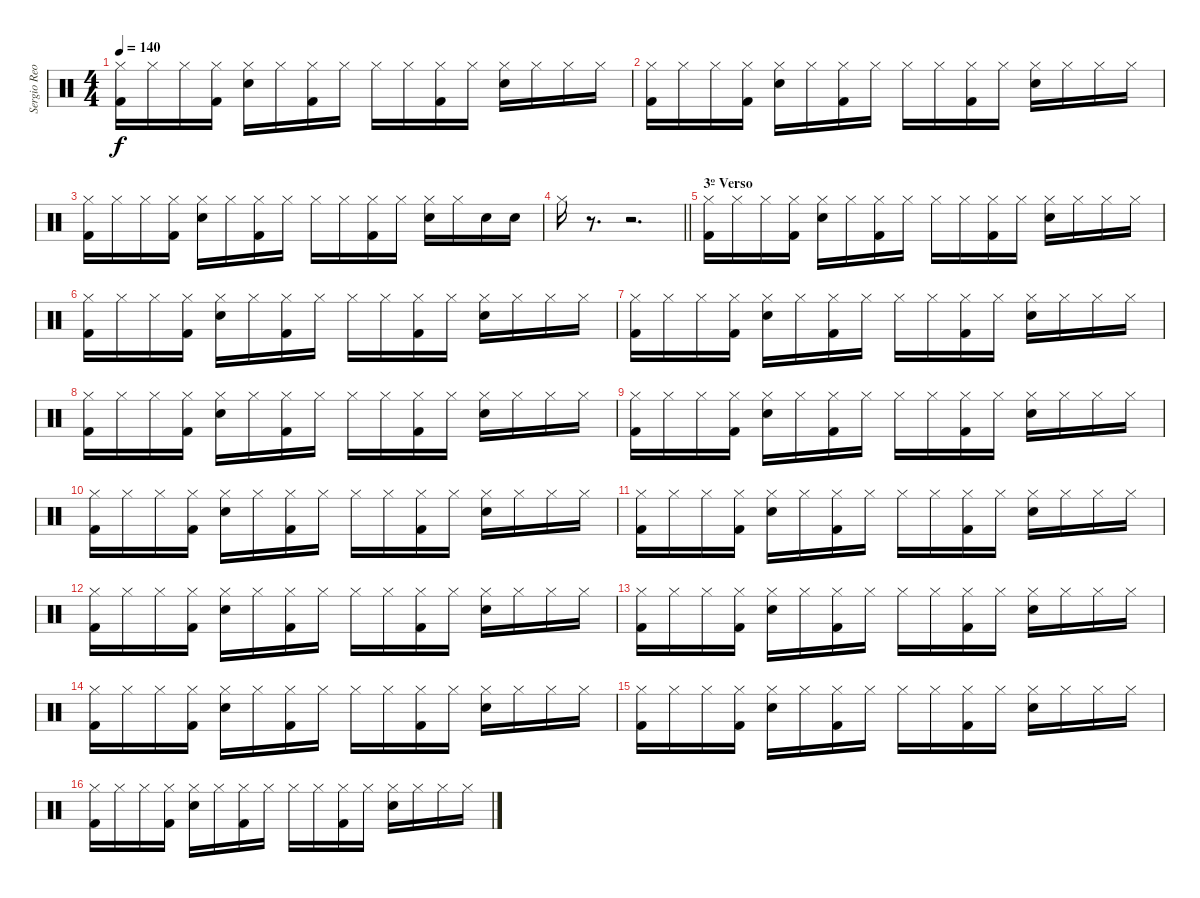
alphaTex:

\track ("Sergio Reoli" "Sergio Reo") {instrument percussion}
\staff {score}
\articulation defaults
\ts (4 4)
\tempo 140
\clef neutral
\ks c
("Hi-Hat (closed)" "Kick (hit) 2").16{dy f} "Hi-Hat (closed)".16 "Hi-Hat (closed)".16 ("Hi-Hat (closed)" "Kick (hit) 2").16 ("Hi-Hat (closed)" "Electric Snare (hit)").16 "Hi-Hat (closed)".16 ("Hi-Hat (closed)" "Kick (hit) 2").16 "Hi-Hat (closed)".16 "Hi-Hat (closed)".16 "Hi-Hat (closed)".16 ("Hi-Hat (closed)" "Kick (hit) 2").16 "Hi-Hat (closed)".16 ("Hi-Hat (closed)" "Electric Snare (hit)").16 "Hi-Hat (closed)".16 "Hi-Hat (closed)".16 "Hi-Hat (closed)".16 |
("Hi-Hat (closed)" "Kick (hit) 2").16 "Hi-Hat (closed)".16 "Hi-Hat (closed)".16 ("Hi-Hat (closed)" "Kick (hit) 2").16 ("Hi-Hat (closed)" "Electric Snare (hit)").16 "Hi-Hat (closed)".16 ("Hi-Hat (closed)" "Kick (hit) 2").16 "Hi-Hat (closed)".16 "Hi-Hat (closed)".16 "Hi-Hat (closed)".16 ("Hi-Hat (closed)" "Kick (hit) 2").16 "Hi-Hat (closed)".16 ("Hi-Hat (closed)" "Electric Snare (hit)").16 "Hi-Hat (closed)".16 "Hi-Hat (closed)".16 "Hi-Hat (closed)".16 |
("Hi-Hat (closed)" "Kick (hit) 2").16 "Hi-Hat (closed)".16 "Hi-Hat (closed)".16 ("Hi-Hat (closed)" "Kick (hit) 2").16 ("Hi-Hat (closed)" "Electric Snare (hit)").16 "Hi-Hat (closed)".16 ("Hi-Hat (closed)" "Kick (hit) 2").16 "Hi-Hat (closed)".16 "Hi-Hat (closed)".16 "Hi-Hat (closed)".16 ("Hi-Hat (closed)" "Kick (hit) 2").16 "Hi-Hat (closed)".16 ("Hi-Hat (closed)" "Electric Snare (hit)").16 "Hi-Hat (closed)".16 "Electric Snare (hit)".16 "Electric Snare (hit)".16 |
\barLineRight lightlight "Hi-Hat (closed)".16
r.8{d} r.2{d} |
\section ("" "3º Verso")
("Hi-Hat (closed)" "Kick (hit) 2").16 "Hi-Hat (closed)".16 "Hi-Hat (closed)".16 ("Hi-Hat (closed)" "Kick (hit) 2").16 ("Hi-Hat (closed)" "Electric Snare (hit)").16 "Hi-Hat (closed)".16 ("Hi-Hat (closed)" "Kick (hit) 2").16 "Hi-Hat (closed)".16 "Hi-Hat (closed)".16 "Hi-Hat (closed)".16 ("Hi-Hat (closed)" "Kick (hit) 2").16 "Hi-Hat (closed)".16 ("Hi-Hat (closed)" "Electric Snare (hit)").16 "Hi-Hat (closed)".16 "Hi-Hat (closed)".16 "Hi-Hat (closed)".16 |
("Hi-Hat (closed)" "Kick (hit) 2").16 "Hi-Hat (closed)".16 "Hi-Hat (closed)".16 ("Hi-Hat (closed)" "Kick (hit) 2").16 ("Hi-Hat (closed)" "Electric Snare (hit)").16 "Hi-Hat (closed)".16 ("Hi-Hat (closed)" "Kick (hit) 2").16 "Hi-Hat (closed)".16 "Hi-Hat (closed)".16 "Hi-Hat (closed)".16 ("Hi-Hat (closed)" "Kick (hit) 2").16 "Hi-Hat (closed)".16 ("Hi-Hat (closed)" "Electric Snare (hit)").16 "Hi-Hat (closed)".16 "Hi-Hat (closed)".16 "Hi-Hat (closed)".16 |
("Hi-Hat (closed)" "Kick (hit) 2").16 "Hi-Hat (closed)".16 "Hi-Hat (closed)".16 ("Hi-Hat (closed)" "Kick (hit) 2").16 ("Hi-Hat (closed)" "Electric Snare (hit)").16 "Hi-Hat (closed)".16 ("Hi-Hat (closed)" "Kick (hit) 2").16 "Hi-Hat (closed)".16 "Hi-Hat (closed)".16 "Hi-Hat (closed)".16 ("Hi-Hat (closed)" "Kick (hit) 2").16 "Hi-Hat (closed)".16 ("Hi-Hat (closed)" "Electric Snare (hit)").16 "Hi-Hat (closed)".16 "Hi-Hat (closed)".16 "Hi-Hat (closed)".16 |
("Hi-Hat (closed)" "Kick (hit) 2").16 "Hi-Hat (closed)".16 "Hi-Hat (closed)".16 ("Hi-Hat (closed)" "Kick (hit) 2").16 ("Hi-Hat (closed)" "Electric Snare (hit)").16 "Hi-Hat (closed)".16 ("Hi-Hat (closed)" "Kick (hit) 2").16 "Hi-Hat (closed)".16 "Hi-Hat (closed)".16 "Hi-Hat (closed)".16 ("Hi-Hat (closed)" "Kick (hit) 2").16 "Hi-Hat (closed)".16 ("Hi-Hat (closed)" "Electric Snare (hit)").16 "Hi-Hat (closed)".16 "Hi-Hat (closed)".16 "Hi-Hat (closed)".16 |
("Hi-Hat (closed)" "Kick (hit) 2").16 "Hi-Hat (closed)".16 "Hi-Hat (closed)".16 ("Hi-Hat (closed)" "Kick (hit) 2").16 ("Hi-Hat (closed)" "Electric Snare (hit)").16 "Hi-Hat (closed)".16 ("Hi-Hat (closed)" "Kick (hit) 2").16 "Hi-Hat (closed)".16 "Hi-Hat (closed)".16 "Hi-Hat (closed)".16 ("Hi-Hat (closed)" "Kick (hit) 2").16 "Hi-Hat (closed)".16 ("Hi-Hat (closed)" "Electric Snare (hit)").16 "Hi-Hat (closed)".16 "Hi-Hat (closed)".16 "Hi-Hat (closed)".16 |
("Hi-Hat (closed)" "Kick (hit) 2").16 "Hi-Hat (closed)".16 "Hi-Hat (closed)".16 ("Hi-Hat (closed)" "Kick (hit) 2").16 ("Hi-Hat (closed)" "Electric Snare (hit)").16 "Hi-Hat (closed)".16 ("Hi-Hat (closed)" "Kick (hit) 2").16 "Hi-Hat (closed)".16 "Hi-Hat (closed)".16 "Hi-Hat (closed)".16 ("Hi-Hat (closed)" "Kick (hit) 2").16 "Hi-Hat (closed)".16 ("Hi-Hat (closed)" "Electric Snare (hit)").16 "Hi-Hat (closed)".16 "Hi-Hat (closed)".16 "Hi-Hat (closed)".16 |
("Hi-Hat (closed)" "Kick (hit) 2").16 "Hi-Hat (closed)".16 "Hi-Hat (closed)".16 ("Hi-Hat (closed)" "Kick (hit) 2").16 ("Hi-Hat (closed)" "Electric Snare (hit)").16 "Hi-Hat (closed)".16 ("Hi-Hat (closed)" "Kick (hit) 2").16 "Hi-Hat (closed)".16 "Hi-Hat (closed)".16 "Hi-Hat (closed)".16 ("Hi-Hat (closed)" "Kick (hit) 2").16 "Hi-Hat (closed)".16 ("Hi-Hat (closed)" "Electric Snare (hit)").16 "Hi-Hat (closed)".16 "Hi-Hat (closed)".16 "Hi-Hat (closed)".16 |
("Hi-Hat (closed)" "Kick (hit) 2").16 "Hi-Hat (closed)".16 "Hi-Hat (closed)".16 ("Hi-Hat (closed)" "Kick (hit) 2").16 ("Hi-Hat (closed)" "Electric Snare (hit)").16 "Hi-Hat (closed)".16 ("Hi-Hat (closed)" "Kick (hit) 2").16 "Hi-Hat (closed)".16 "Hi-Hat (closed)".16 "Hi-Hat (closed)".16 ("Hi-Hat (closed)" "Kick (hit) 2").16 "Hi-Hat (closed)".16 ("Hi-Hat (closed)" "Electric Snare (hit)").16 "Hi-Hat (closed)".16 "Hi-Hat (closed)".16 "Hi-Hat (closed)".16 |
("Hi-Hat (closed)" "Kick (hit) 2").16 "Hi-Hat (closed)".16 "Hi-Hat (closed)".16 ("Hi-Hat (closed)" "Kick (hit) 2").16 ("Hi-Hat (closed)" "Electric Snare (hit)").16 "Hi-Hat (closed)".16 ("Hi-Hat (closed)" "Kick (hit) 2").16 "Hi-Hat (closed)".16 "Hi-Hat (closed)".16 "Hi-Hat (closed)".16 ("Hi-Hat (closed)" "Kick (hit) 2").16 "Hi-Hat (closed)".16 ("Hi-Hat (closed)" "Electric Snare (hit)").16 "Hi-Hat (closed)".16 "Hi-Hat (closed)".16 "Hi-Hat (closed)".16 |
("Hi-Hat (closed)" "Kick (hit) 2").16 "Hi-Hat (closed)".16 "Hi-Hat (closed)".16 ("Hi-Hat (closed)" "Kick (hit) 2").16 ("Hi-Hat (closed)" "Electric Snare (hit)").16 "Hi-Hat (closed)".16 ("Hi-Hat (closed)" "Kick (hit) 2").16 "Hi-Hat (closed)".16 "Hi-Hat (closed)".16 "Hi-Hat (closed)".16 ("Hi-Hat (closed)" "Kick (hit) 2").16 "Hi-Hat (closed)".16 ("Hi-Hat (closed)" "Electric Snare (hit)").16 "Hi-Hat (closed)".16 "Hi-Hat (closed)".16 "Hi-Hat (closed)".16 |
("Hi-Hat (closed)" "Kick (hit) 2").16 "Hi-Hat (closed)".16 "Hi-Hat (closed)".16 ("Hi-Hat (closed)" "Kick (hit) 2").16 ("Hi-Hat (closed)" "Electric Snare (hit)").16 "Hi-Hat (closed)".16 ("Hi-Hat (closed)" "Kick (hit) 2").16 "Hi-Hat (closed)".16 "Hi-Hat (closed)".16 "Hi-Hat (closed)".16 ("Hi-Hat (closed)" "Kick (hit) 2").16 "Hi-Hat (closed)".16 ("Hi-Hat (closed)" "Electric Snare (hit)").16 "Hi-Hat (closed)".16 "Hi-Hat (closed)".16 "Hi-Hat (closed)".16 |
("Hi-Hat (closed)" "Kick (hit) 2").16 "Hi-Hat (closed)".16 "Hi-Hat (closed)".16 ("Hi-Hat (closed)" "Kick (hit) 2").16 ("Hi-Hat (closed)" "Electric Snare (hit)").16 "Hi-Hat (closed)".16 ("Hi-Hat (closed)" "Kick (hit) 2").16 "Hi-Hat (closed)".16 "Hi-Hat (closed)".16 "Hi-Hat (closed)".16 ("Hi-Hat (closed)" "Kick (hit) 2").16 "Hi-Hat (closed)".16 ("Hi-Hat (closed)" "Electric Snare (hit)").16 "Hi-Hat (closed)".16 "Hi-Hat (closed)".16 "Hi-Hat (closed)".16
